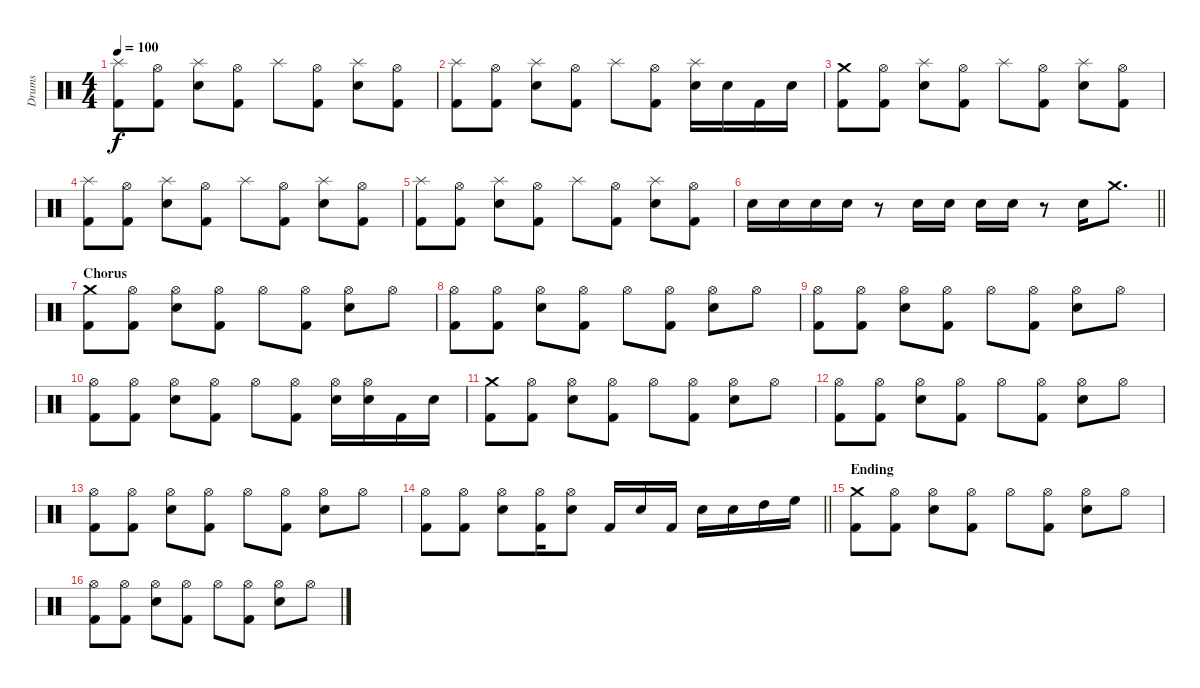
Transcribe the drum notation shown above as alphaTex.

\track ("Drums" "Drums") {instrument percussion}
\staff {score}
\articulation defaults
\ts (4 4)
\tempo 100
\clef neutral
\ks c
("Splash (hit)" "Kick (hit) 2").8{dy f} ("Hi-Hat (open)" "Kick (hit) 2").8 ("Splash (hit)" "Electric Snare (hit)").8 ("Hi-Hat (open)" "Kick (hit) 2").8 "Splash (hit)".8 ("Hi-Hat (open)" "Kick (hit) 2").8 ("Splash (hit)" "Electric Snare (hit)").8 ("Hi-Hat (open)" "Kick (hit) 2").8 |
("Splash (hit)" "Kick (hit) 2").8 ("Hi-Hat (open)" "Kick (hit) 2").8 ("Splash (hit)" "Electric Snare (hit)").8 ("Hi-Hat (open)" "Kick (hit) 2").8 "Splash (hit)".8 ("Hi-Hat (open)" "Kick (hit) 2").8 ("Splash (hit)" "Electric Snare (hit)").16 "Electric Snare (hit)".16 "Kick (hit) 2".16 "Electric Snare (hit)".16 |
("Crash medium (hit)" "Kick (hit) 2").8 ("Hi-Hat (open)" "Kick (hit) 2").8 ("Splash (hit)" "Electric Snare (hit)").8 ("Hi-Hat (open)" "Kick (hit) 2").8 "Splash (hit)".8 ("Hi-Hat (open)" "Kick (hit) 2").8 ("Splash (hit)" "Electric Snare (hit)").8 ("Hi-Hat (open)" "Kick (hit) 2").8 |
("Splash (hit)" "Kick (hit) 2").8 ("Hi-Hat (open)" "Kick (hit) 2").8 ("Splash (hit)" "Electric Snare (hit)").8 ("Hi-Hat (open)" "Kick (hit) 2").8 "Splash (hit)".8 ("Hi-Hat (open)" "Kick (hit) 2").8 ("Splash (hit)" "Electric Snare (hit)").8 ("Hi-Hat (open)" "Kick (hit) 2").8 |
("Splash (hit)" "Kick (hit) 2").8 ("Hi-Hat (open)" "Kick (hit) 2").8 ("Splash (hit)" "Electric Snare (hit)").8 ("Hi-Hat (open)" "Kick (hit) 2").8 "Splash (hit)".8 ("Hi-Hat (open)" "Kick (hit) 2").8 ("Splash (hit)" "Electric Snare (hit)").8 ("Hi-Hat (open)" "Kick (hit) 2").8 |
\barLineRight lightlight "Electric Snare (hit)".16 "Electric Snare (hit)".16 "Electric Snare (hit)".16 "Electric Snare (hit)".16
r.8 "Electric Snare (hit)".16 "Electric Snare (hit)".16 "Electric Snare (hit)".16 "Electric Snare (hit)".16 r.8 "Electric Snare (hit)".16 "Crash medium (hit)".8{d} |
\section ("" "Chorus")
("Crash medium (hit)" "Kick (hit) 2").8 ("Hi-Hat (open)" "Kick (hit) 2").8 ("Hi-Hat (open)" "Electric Snare (hit)").8 ("Hi-Hat (open)" "Kick (hit) 2").8 "Hi-Hat (open)".8 ("Hi-Hat (open)" "Kick (hit) 2").8 ("Hi-Hat (open)" "Electric Snare (hit)").8 "Hi-Hat (open)".8 |
("Hi-Hat (open)" "Kick (hit) 2").8 ("Hi-Hat (open)" "Kick (hit) 2").8 ("Hi-Hat (open)" "Electric Snare (hit)").8 ("Hi-Hat (open)" "Kick (hit) 2").8 "Hi-Hat (open)".8 ("Hi-Hat (open)" "Kick (hit) 2").8 ("Hi-Hat (open)" "Electric Snare (hit)").8 "Hi-Hat (open)".8 |
("Hi-Hat (open)" "Kick (hit) 2").8 ("Hi-Hat (open)" "Kick (hit) 2").8 ("Hi-Hat (open)" "Electric Snare (hit)").8 ("Hi-Hat (open)" "Kick (hit) 2").8 "Hi-Hat (open)".8 ("Hi-Hat (open)" "Kick (hit) 2").8 ("Hi-Hat (open)" "Electric Snare (hit)").8 "Hi-Hat (open)".8 |
("Hi-Hat (open)" "Kick (hit) 2").8 ("Hi-Hat (open)" "Kick (hit) 2").8 ("Hi-Hat (open)" "Electric Snare (hit)").8 ("Hi-Hat (open)" "Kick (hit) 2").8 "Hi-Hat (open)".8 ("Hi-Hat (open)" "Kick (hit) 2").8 ("Hi-Hat (open)" "Electric Snare (hit)").16 ("Hi-Hat (open)" "Electric Snare (hit)").16 "Kick (hit) 2".16 "Electric Snare (hit)".16 |
("Crash medium (hit)" "Kick (hit) 2").8 ("Hi-Hat (open)" "Kick (hit) 2").8 ("Hi-Hat (open)" "Electric Snare (hit)").8 ("Hi-Hat (open)" "Kick (hit) 2").8 "Hi-Hat (open)".8 ("Hi-Hat (open)" "Kick (hit) 2").8 ("Hi-Hat (open)" "Electric Snare (hit)").8 "Hi-Hat (open)".8 |
("Hi-Hat (open)" "Kick (hit) 2").8 ("Hi-Hat (open)" "Kick (hit) 2").8 ("Hi-Hat (open)" "Electric Snare (hit)").8 ("Hi-Hat (open)" "Kick (hit) 2").8 "Hi-Hat (open)".8 ("Hi-Hat (open)" "Kick (hit) 2").8 ("Hi-Hat (open)" "Electric Snare (hit)").8 "Hi-Hat (open)".8 |
("Hi-Hat (open)" "Kick (hit) 2").8 ("Hi-Hat (open)" "Kick (hit) 2").8 ("Hi-Hat (open)" "Electric Snare (hit)").8 ("Hi-Hat (open)" "Kick (hit) 2").8 "Hi-Hat (open)".8 ("Hi-Hat (open)" "Kick (hit) 2").8 ("Hi-Hat (open)" "Electric Snare (hit)").8 "Hi-Hat (open)".8 |
\barLineRight lightlight
("Hi-Hat (open)" "Kick (hit) 2").8 ("Hi-Hat (open)" "Kick (hit) 2").8 ("Hi-Hat (open)" "Electric Snare (hit)").8 ("Hi-Hat (open)" "Kick (hit) 2").16 ("Hi-Hat (open)" "Electric Snare (hit)").8 "Kick (hit) 2".16 "Electric Snare (hit)".16 "Kick (hit) 2".16 "Electric Snare (hit)".16 "Electric Snare (hit)".16 "High Tom (hit)".16 "High Floor Tom (hit)".16 |
\section ("" "Ending")
("Crash medium (hit)" "Kick (hit) 2").8 ("Hi-Hat (open)" "Kick (hit) 2").8 ("Hi-Hat (open)" "Electric Snare (hit)").8 ("Hi-Hat (open)" "Kick (hit) 2").8 "Hi-Hat (open)".8 ("Hi-Hat (open)" "Kick (hit) 2").8 ("Hi-Hat (open)" "Electric Snare (hit)").8 "Hi-Hat (open)".8 |
("Hi-Hat (open)" "Kick (hit) 2").8 ("Hi-Hat (open)" "Kick (hit) 2").8 ("Hi-Hat (open)" "Electric Snare (hit)").8 ("Hi-Hat (open)" "Kick (hit) 2").8 "Hi-Hat (open)".8 ("Hi-Hat (open)" "Kick (hit) 2").8 ("Hi-Hat (open)" "Electric Snare (hit)").8 "Hi-Hat (open)".8
